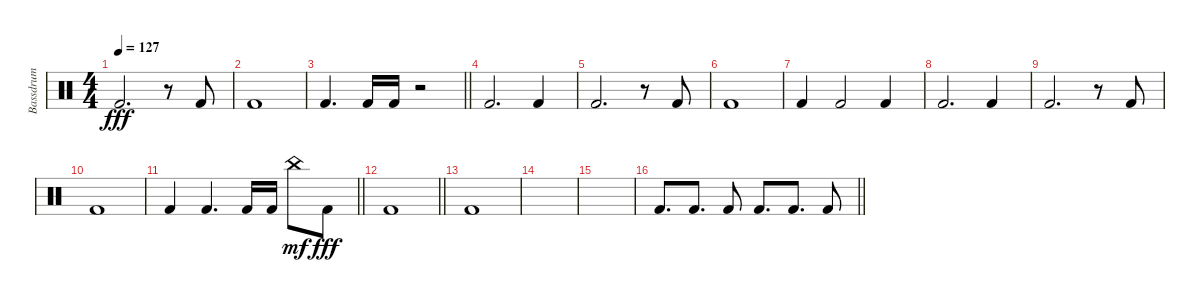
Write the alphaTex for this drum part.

\track ("Bassdrum" "Bassdrum") {instrument percussion}
\staff {score}
\articulation defaults
\ts (4 4)
\tempo 127
\clef neutral
\ks c "Kick (hit) 2".2{d dy fff}
r.8 "Kick (hit) 2".8 |
"Kick (hit) 2".1 |
\barLineRight lightlight "Kick (hit) 2".4{d} "Kick (hit) 2".16 "Kick (hit) 2".16
r.2 |
\section ("" "")
"Kick (hit) 2".2{d} "Kick (hit) 2".4 |
"Kick (hit) 2".2{d} r.8 "Kick (hit) 2".8 |
"Kick (hit) 2".1 |
"Kick (hit) 2".4 "Kick (hit) 2".2 "Kick (hit) 2".4 |
"Kick (hit) 2".2{d} "Kick (hit) 2".4 |
"Kick (hit) 2".2{d} r.8 "Kick (hit) 2".8 |
"Kick (hit) 2".1 |
\barLineRight lightlight "Kick (hit) 2".4 "Kick (hit) 2".4{d} "Kick (hit) 2".16 "Kick (hit) 2".16 "China (hit)".8{dy mf} "Kick (hit) 2".8{dy fff}
|
\section ("" "")
\barLineRight lightlight "Kick (hit) 2".1
|
\section ("" "")
"Kick (hit) 2".1 |
|
|
\barLineRight lightlight "Kick (hit) 2".8{d} "Kick (hit) 2".8{d} "Kick (hit) 2".8 "Kick (hit) 2".8{d} "Kick (hit) 2".8{d} "Kick (hit) 2".8
